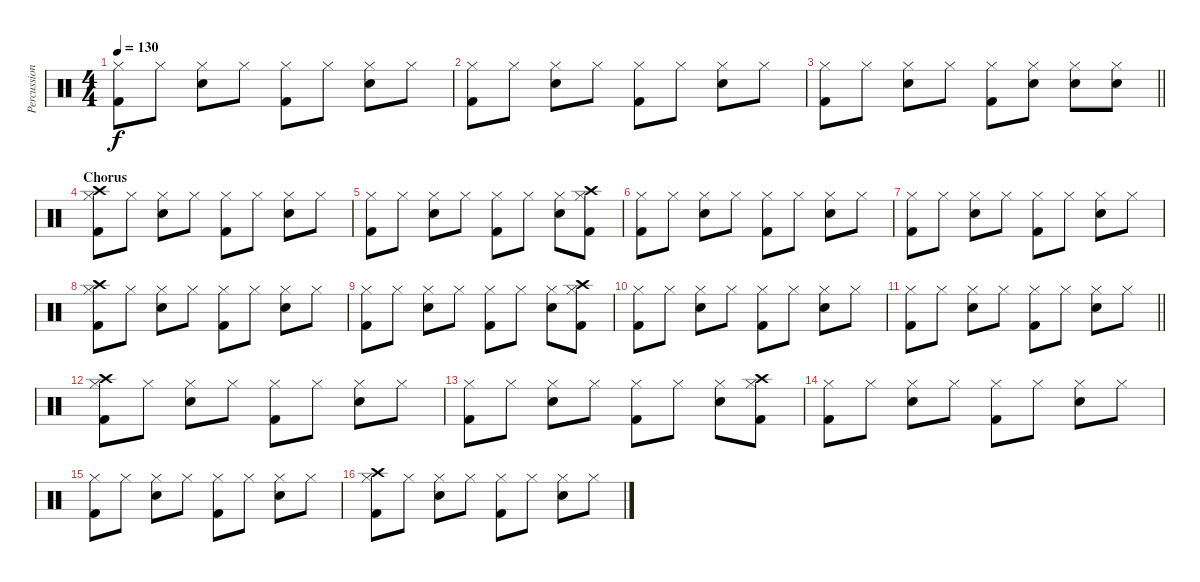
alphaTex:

\track ("Percussion" "Percussion") {instrument percussion}
\staff {score}
\articulation defaults
\ts (4 4)
\tempo 130
\clef neutral
\ks c
("Kick (hit) 2" "Hi-Hat (closed)").8{dy f} "Hi-Hat (closed)".8 ("Hi-Hat (closed)" "Snare (hit) 2").8 "Hi-Hat (closed)".8 ("Hi-Hat (closed)" "Kick (hit) 2").8 "Hi-Hat (closed)".8 ("Hi-Hat (closed)" "Snare (hit) 2").8 "Hi-Hat (closed)".8 |
("Kick (hit) 2" "Hi-Hat (closed)").8 "Hi-Hat (closed)".8 ("Hi-Hat (closed)" "Snare (hit) 2").8 "Hi-Hat (closed)".8 ("Hi-Hat (closed)" "Kick (hit) 2").8 "Hi-Hat (closed)".8 ("Hi-Hat (closed)" "Snare (hit) 2").8 "Hi-Hat (closed)".8 |
\barLineRight lightlight
("Kick (hit) 2" "Hi-Hat (closed)").8 "Hi-Hat (closed)".8 ("Hi-Hat (closed)" "Snare (hit) 2").8 "Hi-Hat (closed)".8 ("Hi-Hat (closed)" "Kick (hit) 2").8 ("Hi-Hat (closed)" "Snare (hit) 2").8 ("Hi-Hat (closed)" "Snare (hit) 2").8 ("Hi-Hat (closed)" "Snare (hit) 2").8 |
\section ("" "Chorus")
("Kick (hit) 2" "Hi-Hat (closed)" "Crash high (hit)").8 "Hi-Hat (closed)".8 ("Hi-Hat (closed)" "Snare (hit) 2").8 "Hi-Hat (closed)".8 ("Hi-Hat (closed)" "Kick (hit) 2").8 "Hi-Hat (closed)".8 ("Hi-Hat (closed)" "Snare (hit) 2").8 "Hi-Hat (closed)".8 |
("Kick (hit) 2" "Hi-Hat (closed)").8 "Hi-Hat (closed)".8 ("Hi-Hat (closed)" "Snare (hit) 2").8 "Hi-Hat (closed)".8 ("Hi-Hat (closed)" "Kick (hit) 2").8 "Hi-Hat (closed)".8 ("Hi-Hat (closed)" "Snare (hit) 2").8 ("Hi-Hat (closed)" "Kick (hit) 2" "Crash high (hit)").8 |
("Kick (hit) 2" "Hi-Hat (closed)").8 "Hi-Hat (closed)".8 ("Hi-Hat (closed)" "Snare (hit) 2").8 "Hi-Hat (closed)".8 ("Hi-Hat (closed)" "Kick (hit) 2").8 "Hi-Hat (closed)".8 ("Hi-Hat (closed)" "Snare (hit) 2").8 "Hi-Hat (closed)".8 |
("Kick (hit) 2" "Hi-Hat (closed)").8 "Hi-Hat (closed)".8 ("Hi-Hat (closed)" "Snare (hit) 2").8 "Hi-Hat (closed)".8 ("Hi-Hat (closed)" "Kick (hit) 2").8 "Hi-Hat (closed)".8 ("Hi-Hat (closed)" "Snare (hit) 2").8 "Hi-Hat (closed)".8 |
("Kick (hit) 2" "Hi-Hat (closed)" "Crash high (hit)").8 "Hi-Hat (closed)".8 ("Hi-Hat (closed)" "Snare (hit) 2").8 "Hi-Hat (closed)".8 ("Hi-Hat (closed)" "Kick (hit) 2").8 "Hi-Hat (closed)".8 ("Hi-Hat (closed)" "Snare (hit) 2").8 "Hi-Hat (closed)".8 |
("Kick (hit) 2" "Hi-Hat (closed)").8 "Hi-Hat (closed)".8 ("Hi-Hat (closed)" "Snare (hit) 2").8 "Hi-Hat (closed)".8 ("Hi-Hat (closed)" "Kick (hit) 2").8 "Hi-Hat (closed)".8 ("Hi-Hat (closed)" "Snare (hit) 2").8 ("Hi-Hat (closed)" "Kick (hit) 2" "Crash high (hit)").8 |
("Kick (hit) 2" "Hi-Hat (closed)").8 "Hi-Hat (closed)".8 ("Hi-Hat (closed)" "Snare (hit) 2").8 "Hi-Hat (closed)".8 ("Hi-Hat (closed)" "Kick (hit) 2").8 "Hi-Hat (closed)".8 ("Hi-Hat (closed)" "Snare (hit) 2").8 "Hi-Hat (closed)".8 |
\barLineRight lightlight
("Kick (hit) 2" "Hi-Hat (closed)").8 "Hi-Hat (closed)".8 ("Hi-Hat (closed)" "Snare (hit) 2").8 "Hi-Hat (closed)".8 ("Hi-Hat (closed)" "Kick (hit) 2").8 "Hi-Hat (closed)".8 ("Hi-Hat (closed)" "Snare (hit) 2").8 "Hi-Hat (closed)".8 |
("Kick (hit) 2" "Hi-Hat (closed)" "Crash high (hit)").8 "Hi-Hat (closed)".8 ("Hi-Hat (closed)" "Snare (hit) 2").8 "Hi-Hat (closed)".8 ("Hi-Hat (closed)" "Kick (hit) 2").8 "Hi-Hat (closed)".8 ("Hi-Hat (closed)" "Snare (hit) 2").8 "Hi-Hat (closed)".8 |
("Kick (hit) 2" "Hi-Hat (closed)").8 "Hi-Hat (closed)".8 ("Hi-Hat (closed)" "Snare (hit) 2").8 "Hi-Hat (closed)".8 ("Hi-Hat (closed)" "Kick (hit) 2").8 "Hi-Hat (closed)".8 ("Hi-Hat (closed)" "Snare (hit) 2").8 ("Hi-Hat (closed)" "Kick (hit) 2" "Crash high (hit)").8 |
("Kick (hit) 2" "Hi-Hat (closed)").8 "Hi-Hat (closed)".8 ("Hi-Hat (closed)" "Snare (hit) 2").8 "Hi-Hat (closed)".8 ("Hi-Hat (closed)" "Kick (hit) 2").8 "Hi-Hat (closed)".8 ("Hi-Hat (closed)" "Snare (hit) 2").8 "Hi-Hat (closed)".8 |
("Kick (hit) 2" "Hi-Hat (closed)").8 "Hi-Hat (closed)".8 ("Hi-Hat (closed)" "Snare (hit) 2").8 "Hi-Hat (closed)".8 ("Hi-Hat (closed)" "Kick (hit) 2").8 "Hi-Hat (closed)".8 ("Hi-Hat (closed)" "Snare (hit) 2").8 "Hi-Hat (closed)".8 |
("Kick (hit) 2" "Hi-Hat (closed)" "Crash high (hit)").8 "Hi-Hat (closed)".8 ("Hi-Hat (closed)" "Snare (hit) 2").8 "Hi-Hat (closed)".8 ("Hi-Hat (closed)" "Kick (hit) 2").8 "Hi-Hat (closed)".8 ("Hi-Hat (closed)" "Snare (hit) 2").8 "Hi-Hat (closed)".8
